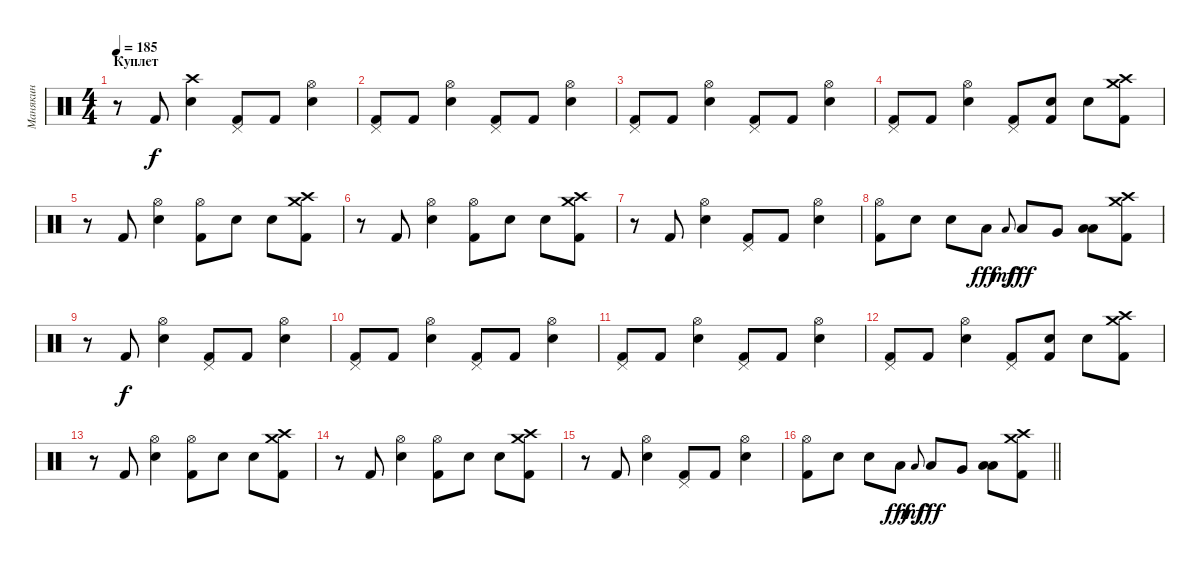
\track ("Манякин" "Манякин") {instrument percussion}
\staff {score}
\articulation defaults
\ts (4 4)
\section ("" "Куплет")
\tempo 185
\clef neutral
\ks c
r.8{dy f} "Kick (hit) 2".8 ("Crash high (hit)" "Electric Snare (hit)").4 ("Pedal Hi-Hat (hit)" "Kick (hit) 2").8 "Kick (hit) 2".8 ("Hi-Hat (open)" "Electric Snare (hit)").4 |
("Pedal Hi-Hat (hit)" "Kick (hit) 2").8 "Kick (hit) 2".8 ("Hi-Hat (open)" "Electric Snare (hit)").4 ("Pedal Hi-Hat (hit)" "Kick (hit) 2").8 "Kick (hit) 2".8 ("Hi-Hat (open)" "Electric Snare (hit)").4 |
("Pedal Hi-Hat (hit)" "Kick (hit) 2").8 "Kick (hit) 2".8 ("Hi-Hat (open)" "Electric Snare (hit)").4 ("Pedal Hi-Hat (hit)" "Kick (hit) 2").8 "Kick (hit) 2".8 ("Hi-Hat (open)" "Electric Snare (hit)").4 |
("Pedal Hi-Hat (hit)" "Kick (hit) 2").8 "Kick (hit) 2".8 ("Hi-Hat (open)" "Electric Snare (hit)").4 ("Pedal Hi-Hat (hit)" "Kick (hit) 2").8 ("Electric Snare (hit)" "Kick (hit) 2").8 "Electric Snare (hit)".8 ("Crash high (hit)" "Crash medium (hit)" "Kick (hit) 2").8 |
r.8 "Kick (hit) 2".8 ("Hi-Hat (open)" "Electric Snare (hit)").4 ("Hi-Hat (open)" "Kick (hit) 2").8 "Electric Snare (hit)".8 "Electric Snare (hit)".8 ("Crash high (hit)" "Crash medium (hit)" "Kick (hit) 2").8 |
r.8 "Kick (hit) 2".8 ("Hi-Hat (open)" "Electric Snare (hit)").4 ("Hi-Hat (open)" "Kick (hit) 2").8 "Electric Snare (hit)".8 "Electric Snare (hit)".8 ("Crash high (hit)" "Crash medium (hit)" "Kick (hit) 2").8 |
r.8 "Kick (hit) 2".8 ("Hi-Hat (open)" "Electric Snare (hit)").4 ("Pedal Hi-Hat (hit)" "Kick (hit) 2").8 "Kick (hit) 2".8 ("Hi-Hat (open)" "Electric Snare (hit)").4 |
("Hi-Hat (open)" "Kick (hit) 2").8 "Electric Snare (hit)".8 "Electric Snare (hit)".8 "Low Tom (hit)".8{dy fff} "Low Tom (hit)".8{gr onbeat dy mf} "Low Tom (hit)".8{dy fff} "Very Low Tom (hit)".8 ("Low Floor Tom (hit)" "Low Floor Tom (hit)").8 ("Crash high (hit)" "Crash medium (hit)" "Kick (hit) 2").8 |
r.8 "Kick (hit) 2".8{dy f} ("Hi-Hat (open)" "Electric Snare (hit)").4 ("Pedal Hi-Hat (hit)" "Kick (hit) 2").8 "Kick (hit) 2".8 ("Hi-Hat (open)" "Electric Snare (hit)").4 |
("Pedal Hi-Hat (hit)" "Kick (hit) 2").8 "Kick (hit) 2".8 ("Hi-Hat (open)" "Electric Snare (hit)").4 ("Pedal Hi-Hat (hit)" "Kick (hit) 2").8 "Kick (hit) 2".8 ("Hi-Hat (open)" "Electric Snare (hit)").4 |
("Pedal Hi-Hat (hit)" "Kick (hit) 2").8 "Kick (hit) 2".8 ("Hi-Hat (open)" "Electric Snare (hit)").4 ("Pedal Hi-Hat (hit)" "Kick (hit) 2").8 "Kick (hit) 2".8 ("Hi-Hat (open)" "Electric Snare (hit)").4 |
("Pedal Hi-Hat (hit)" "Kick (hit) 2").8 "Kick (hit) 2".8 ("Hi-Hat (open)" "Electric Snare (hit)").4 ("Pedal Hi-Hat (hit)" "Kick (hit) 2").8 ("Electric Snare (hit)" "Kick (hit) 2").8 "Electric Snare (hit)".8 ("Crash high (hit)" "Crash medium (hit)" "Kick (hit) 2").8 |
r.8 "Kick (hit) 2".8 ("Hi-Hat (open)" "Electric Snare (hit)").4 ("Hi-Hat (open)" "Kick (hit) 2").8 "Electric Snare (hit)".8 "Electric Snare (hit)".8 ("Crash high (hit)" "Crash medium (hit)" "Kick (hit) 2").8 |
r.8 "Kick (hit) 2".8 ("Hi-Hat (open)" "Electric Snare (hit)").4 ("Hi-Hat (open)" "Kick (hit) 2").8 "Electric Snare (hit)".8 "Electric Snare (hit)".8 ("Crash high (hit)" "Crash medium (hit)" "Kick (hit) 2").8 |
r.8 "Kick (hit) 2".8 ("Hi-Hat (open)" "Electric Snare (hit)").4 ("Pedal Hi-Hat (hit)" "Kick (hit) 2").8 "Kick (hit) 2".8 ("Hi-Hat (open)" "Electric Snare (hit)").4 |
\barLineRight lightlight
("Hi-Hat (open)" "Kick (hit) 2").8 "Electric Snare (hit)".8 "Electric Snare (hit)".8 "Low Tom (hit)".8{dy fff} "Low Tom (hit)".8{gr onbeat dy mf} "Low Tom (hit)".8{dy fff} "Very Low Tom (hit)".8 ("Low Floor Tom (hit)" "Low Floor Tom (hit)").8 ("Crash high (hit)" "Crash medium (hit)" "Kick (hit) 2").8
